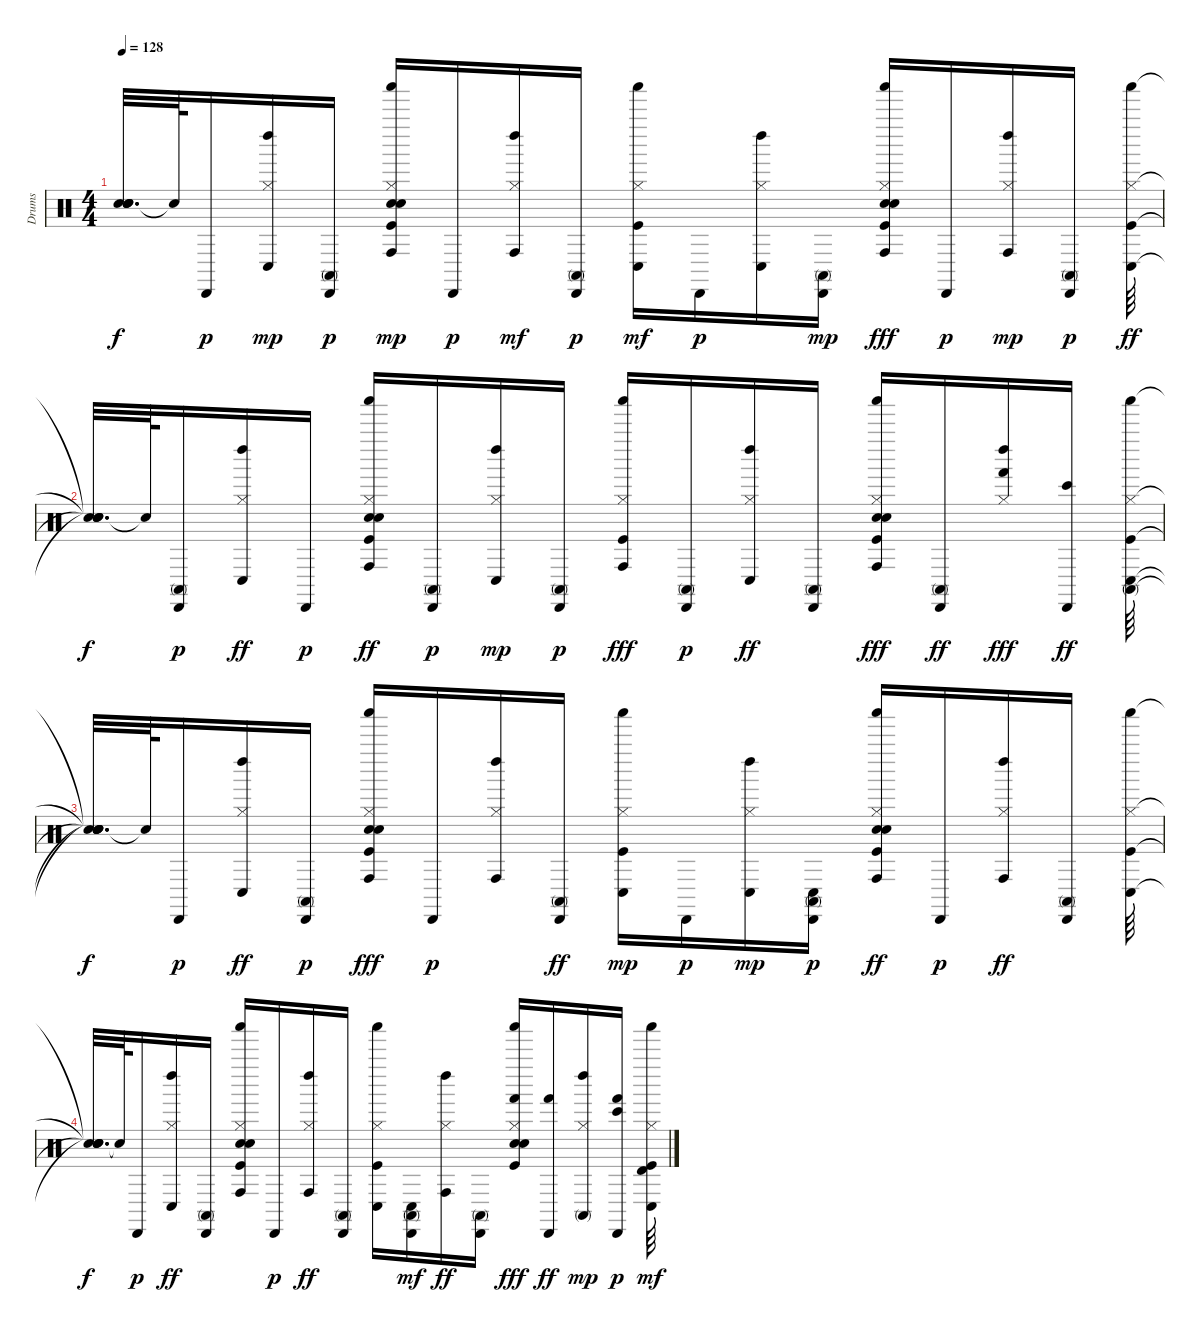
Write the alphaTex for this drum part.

\track ("Drums" "Drums") {instrument percussion}
\staff {score}
\articulation defaults
\ts (4 4)
\tempo 128
\clef neutral
\ks c
("Snare (hit)"{t} "Snare (hit)"{t} "Snare (hit)"{t} "Snare (hit)"{t}).32{d dy f} "Snare (hit)"{t}.64 "Cabasa (hit)".16{dy p} ("Hi-Hat (closed)" "Left Maraca (hit)" "Conga low (hit)").16{dy mp} ("Cabasa (hit)" "Conga high (mute)").16{dy p} ("Kick (hit)" "Electric Snare (hit)" "Hand Clap (hit)" "Hi-Hat (closed)" "Shaker (hit)" "Conga high (hit)").16{dy mp} "Cabasa (hit)".16{dy p} ("Hi-Hat (closed)" "Left Maraca (hit)" "Conga high (hit)").16{dy mf} ("Cabasa (hit)" "Conga high (mute)").16{dy p} ("Kick (hit)" "Hi-Hat (closed)" "Shaker (hit)" "Conga low (hit)").16{dy mf} "Cabasa (hit)".16{dy p} ("Hi-Hat (closed)" "Left Maraca (hit)" "Conga low (hit)").16 ("Cabasa (hit)" "Conga high (mute)").16{dy mp} ("Kick (hit)" "Electric Snare (hit)" "Hand Clap (hit)" "Hi-Hat (closed)" "Shaker (hit)" "Conga high (hit)").16{dy fff} "Cabasa (hit)".16{dy p} ("Hi-Hat (closed)" "Left Maraca (hit)" "Conga high (hit)").16{dy mp} ("Cabasa (hit)" "Conga high (mute)").16{dy p} ("Kick (hit)" "Hi-Hat (closed)" "Shaker (hit)" "Conga low (hit)").64{dy ff} |
("Snare (hit)"{t} "Snare (hit)"{t} "Snare (hit)"{t} "Snare (hit)"{t}).32{d dy f} "Snare (hit)"{t}.64 ("Cabasa (hit)" "Conga high (mute)").16{dy p} ("Hi-Hat (closed)" "Left Maraca (hit)" "Conga low (hit)").16{dy ff} "Cabasa (hit)".16{dy p} ("Kick (hit)" "Electric Snare (hit)" "Hand Clap (hit)" "Hi-Hat (closed)" "Shaker (hit)" "Conga high (hit)").16{dy ff} ("Cabasa (hit)" "Conga high (mute)").16{dy p} ("Hi-Hat (closed)" "Left Maraca (hit)" "Conga low (hit)").16{dy mp} ("Cabasa (hit)" "Conga high (mute)").16{dy p} ("Kick (hit)" "Hi-Hat (closed)" "Shaker (hit)" "Conga high (hit)").16{dy fff} ("Cabasa (hit)" "Conga high (mute)").16{dy p} ("Hi-Hat (closed)" "Left Maraca (hit)" "Conga low (hit)").16{dy ff} ("Cabasa (hit)" "Conga high (mute)").16 ("Kick (hit)" "Electric Snare (hit)" "Hand Clap (hit)" "Hi-Hat (closed)" "Shaker (hit)" "Conga high (hit)").16{dy fff} ("Cabasa (hit)" "Conga high (mute)").16{dy ff} ("Hi-Hat (closed)" "Left Maraca (hit)" "Hand (hit)").16{dy fff} ("Cabasa (hit)" "Bongo High (hit)").16{dy ff} ("Kick (hit)" "Hi-Hat (closed)" "Shaker (hit)" "Conga low (hit)" "Conga high (mute)").64 |
("Snare (hit)"{t} "Snare (hit)"{t} "Snare (hit)"{t} "Snare (hit)"{t} "Snare (hit)"{t}).32{d dy f} "Snare (hit)"{t}.64 "Cabasa (hit)".16{dy p} ("Hi-Hat (closed)" "Left Maraca (hit)" "Conga low (hit)").16{dy ff} ("Cabasa (hit)" "Conga high (mute)").16{dy p} ("Kick (hit)" "Electric Snare (hit)" "Hand Clap (hit)" "Hi-Hat (closed)" "Shaker (hit)" "Conga high (hit)").16{dy fff} "Cabasa (hit)".16{dy p} ("Hi-Hat (closed)" "Left Maraca (hit)" "Conga high (hit)").16 ("Cabasa (hit)" "Conga high (mute)").16{dy ff} ("Kick (hit)" "Hi-Hat (closed)" "Shaker (hit)" "Conga low (hit)").16{dy mp} "Cabasa (hit)".16{dy p} ("Hi-Hat (closed)" "Left Maraca (hit)" "Conga low (hit)").16{dy mp} ("Cabasa (hit)" "Conga high (mute)" "Conga low (hit)").16{dy p} ("Kick (hit)" "Electric Snare (hit)" "Hand Clap (hit)" "Hi-Hat (closed)" "Shaker (hit)" "Conga high (hit)").16{dy ff} "Cabasa (hit)".16{dy p} ("Hi-Hat (closed)" "Left Maraca (hit)" "Conga high (hit)").16{dy ff} ("Cabasa (hit)" "Conga high (mute)").16 ("Kick (hit)" "Hi-Hat (closed)" "Shaker (hit)" "Conga low (hit)").64 |
("Snare (hit)"{t} "Snare (hit)"{t} "Snare (hit)"{t} "Snare (hit)"{t}).32{d dy f} "Snare (hit)"{t}.64 "Cabasa (hit)".16{dy p} ("Hi-Hat (closed)" "Left Maraca (hit)" "Conga low (hit)").16{dy ff} ("Cabasa (hit)" "Conga high (mute)").16 ("Kick (hit)" "Electric Snare (hit)" "Hand Clap (hit)" "Hi-Hat (closed)" "Shaker (hit)" "Conga high (hit)").16 "Cabasa (hit)".16{dy p} ("Hi-Hat (closed)" "Left Maraca (hit)" "Conga high (hit)").16{dy ff} ("Cabasa (hit)" "Conga high (mute)").16 ("Kick (hit)" "Hi-Hat (closed)" "Shaker (hit)" "Conga low (hit)").16 ("Cabasa (hit)" "Conga high (mute)" "Conga low (hit)").16{dy mf} ("Hi-Hat (closed)" "Left Maraca (hit)" "Conga high (hit)").16{dy ff} ("Cabasa (hit)" "Conga high (mute)").16 ("Kick (hit)" "Electric Snare (hit)" "Hand Clap (hit)" "Hi-Hat (closed)" "Shaker (hit)" "Hand (hit)").16{dy fff} ("Cabasa (hit)" "Hand (hit)").16{dy ff} ("Hi-Hat (closed)" "Left Maraca (hit)" "Conga high (mute)").16{dy mp} ("Cabasa (hit)" "Hand (hit)" "Bongo High (hit)").16{dy p} ("Kick (hit)" "Hi-Hat (closed)" "Shaker (hit)" "Conga low (hit)" "Timbale high (hit)").64{dy mf}
